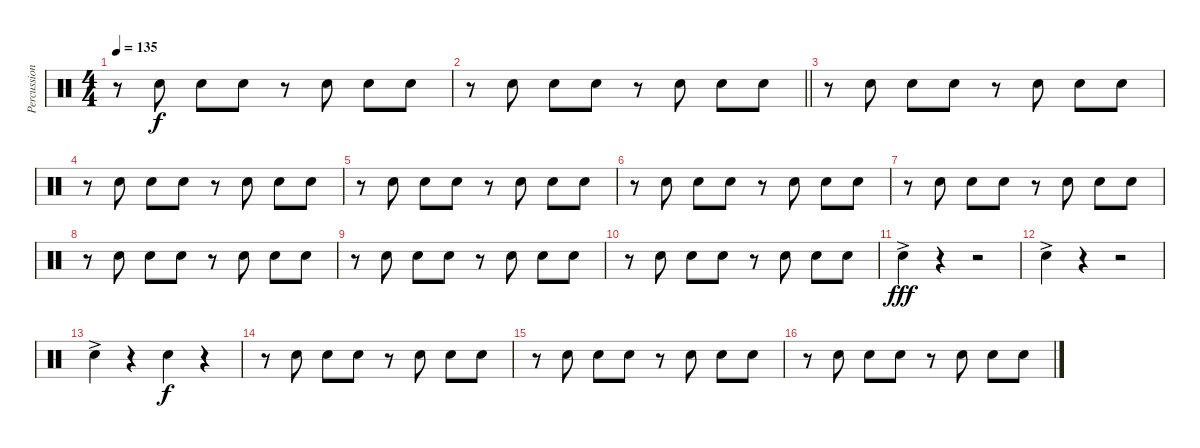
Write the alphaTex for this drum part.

\track ("Percussions 2" "Percussion") {instrument percussion}
\staff {score}
\articulation defaults
\ts (4 4)
\tempo 135
\clef neutral
\ks c
r.8{dy f} "Snare (hit) 2".8 "Snare (hit) 2".8 "Snare (hit) 2".8 r.8 "Snare (hit) 2".8 "Snare (hit) 2".8 "Snare (hit) 2".8 |
\barLineRight lightlight
r.8 "Snare (hit) 2".8 "Snare (hit) 2".8 "Snare (hit) 2".8 r.8 "Snare (hit) 2".8 "Snare (hit) 2".8 "Snare (hit) 2".8 |
r.8 "Snare (hit) 2".8 "Snare (hit) 2".8 "Snare (hit) 2".8 r.8 "Snare (hit) 2".8 "Snare (hit) 2".8 "Snare (hit) 2".8 |
r.8 "Snare (hit) 2".8 "Snare (hit) 2".8 "Snare (hit) 2".8 r.8 "Snare (hit) 2".8 "Snare (hit) 2".8 "Snare (hit) 2".8 |
r.8 "Snare (hit) 2".8 "Snare (hit) 2".8 "Snare (hit) 2".8 r.8 "Snare (hit) 2".8 "Snare (hit) 2".8 "Snare (hit) 2".8 |
r.8 "Snare (hit) 2".8 "Snare (hit) 2".8 "Snare (hit) 2".8 r.8 "Snare (hit) 2".8 "Snare (hit) 2".8 "Snare (hit) 2".8 |
r.8 "Snare (hit) 2".8 "Snare (hit) 2".8 "Snare (hit) 2".8 r.8 "Snare (hit) 2".8 "Snare (hit) 2".8 "Snare (hit) 2".8 |
r.8 "Snare (hit) 2".8 "Snare (hit) 2".8 "Snare (hit) 2".8 r.8 "Snare (hit) 2".8 "Snare (hit) 2".8 "Snare (hit) 2".8 |
r.8 "Snare (hit) 2".8 "Snare (hit) 2".8 "Snare (hit) 2".8 r.8 "Snare (hit) 2".8 "Snare (hit) 2".8 "Snare (hit) 2".8 |
r.8 "Snare (hit) 2".8 "Snare (hit) 2".8 "Snare (hit) 2".8 r.8 "Snare (hit) 2".8 "Snare (hit) 2".8 "Snare (hit) 2".8 |
"Snare (hit) 2"{ac}.4{dy fff} r.4 r.2 |
"Snare (hit) 2"{ac}.4 r.4 r.2 |
"Snare (hit) 2"{ac}.4 r.4 "Snare (hit) 2".4{dy f} r.4 |
r.8 "Snare (hit) 2".8 "Snare (hit) 2".8 "Snare (hit) 2".8 r.8 "Snare (hit) 2".8 "Snare (hit) 2".8 "Snare (hit) 2".8 |
r.8 "Snare (hit) 2".8 "Snare (hit) 2".8 "Snare (hit) 2".8 r.8 "Snare (hit) 2".8 "Snare (hit) 2".8 "Snare (hit) 2".8 |
r.8 "Snare (hit) 2".8 "Snare (hit) 2".8 "Snare (hit) 2".8 r.8 "Snare (hit) 2".8 "Snare (hit) 2".8 "Snare (hit) 2".8
